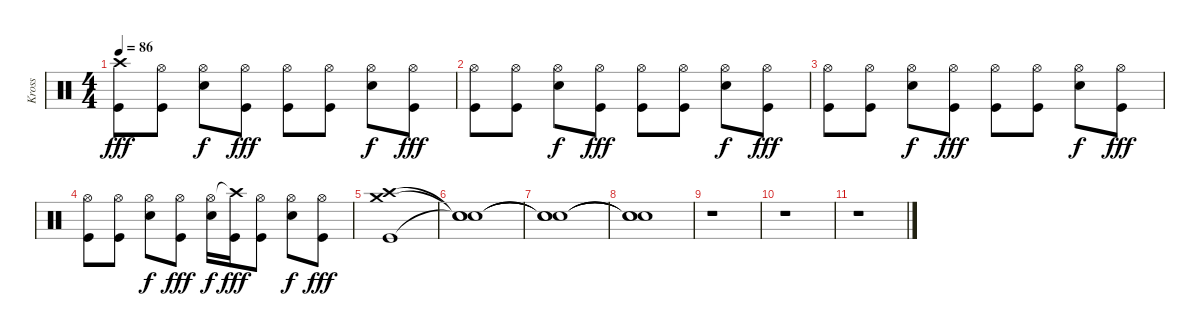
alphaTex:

\track ("Kross" "Kross") {instrument percussion}
\staff {score}
\articulation defaults
\ts (4 4)
\tempo 86
\clef neutral
\ks c
("Crash high (hit)" "Kick (hit)").8{dy fff} ("Hi-Hat (open)" "Kick (hit)").8 ("Hi-Hat (open)" "Electric Snare (hit)").8{dy f} ("Hi-Hat (open)" "Kick (hit)").8{dy fff} ("Hi-Hat (open)" "Kick (hit)").8 ("Hi-Hat (open)" "Kick (hit)").8 ("Hi-Hat (open)" "Electric Snare (hit)").8{dy f} ("Hi-Hat (open)" "Kick (hit)").8{dy fff} |
("Hi-Hat (open)" "Kick (hit)").8 ("Hi-Hat (open)" "Kick (hit)").8 ("Hi-Hat (open)" "Electric Snare (hit)").8{dy f} ("Hi-Hat (open)" "Kick (hit)").8{dy fff} ("Hi-Hat (open)" "Kick (hit)").8 ("Hi-Hat (open)" "Kick (hit)").8 ("Hi-Hat (open)" "Electric Snare (hit)").8{dy f} ("Hi-Hat (open)" "Kick (hit)").8{dy fff} |
("Hi-Hat (open)" "Kick (hit)").8 ("Hi-Hat (open)" "Kick (hit)").8 ("Hi-Hat (open)" "Electric Snare (hit)").8{dy f} ("Hi-Hat (open)" "Kick (hit)").8{dy fff} ("Hi-Hat (open)" "Kick (hit)").8 ("Hi-Hat (open)" "Kick (hit)").8 ("Hi-Hat (open)" "Electric Snare (hit)").8{dy f} ("Hi-Hat (open)" "Kick (hit)").8{dy fff} |
("Hi-Hat (open)" "Kick (hit)").8 ("Hi-Hat (open)" "Kick (hit)").8 ("Hi-Hat (open)" "Electric Snare (hit)").8{dy f} ("Hi-Hat (open)" "Kick (hit)").8{dy fff} ("Hi-Hat (open)" "Electric Snare (hit)").16{dy f} ("Crash high (hit)"{t} "Kick (hit)").16{dy fff} ("Hi-Hat (open)" "Kick (hit)").8 ("Hi-Hat (open)" "Electric Snare (hit)").8{dy f} ("Hi-Hat (open)" "Kick (hit)").8{dy fff} |
("Crash high (hit)" "Crash medium (hit)" "Kick (hit)").1{volume 0} |
("Snare (hit)"{t} "Snare (hit)"{t} "Snare (hit)"{t}).1 |
("Snare (hit)"{t} "Snare (hit)"{t} "Snare (hit)"{t}).1 |
("Snare (hit)"{t} "Snare (hit)"{t} "Snare (hit)"{t}).1 |
r.1 |
r.1 |
r.1
